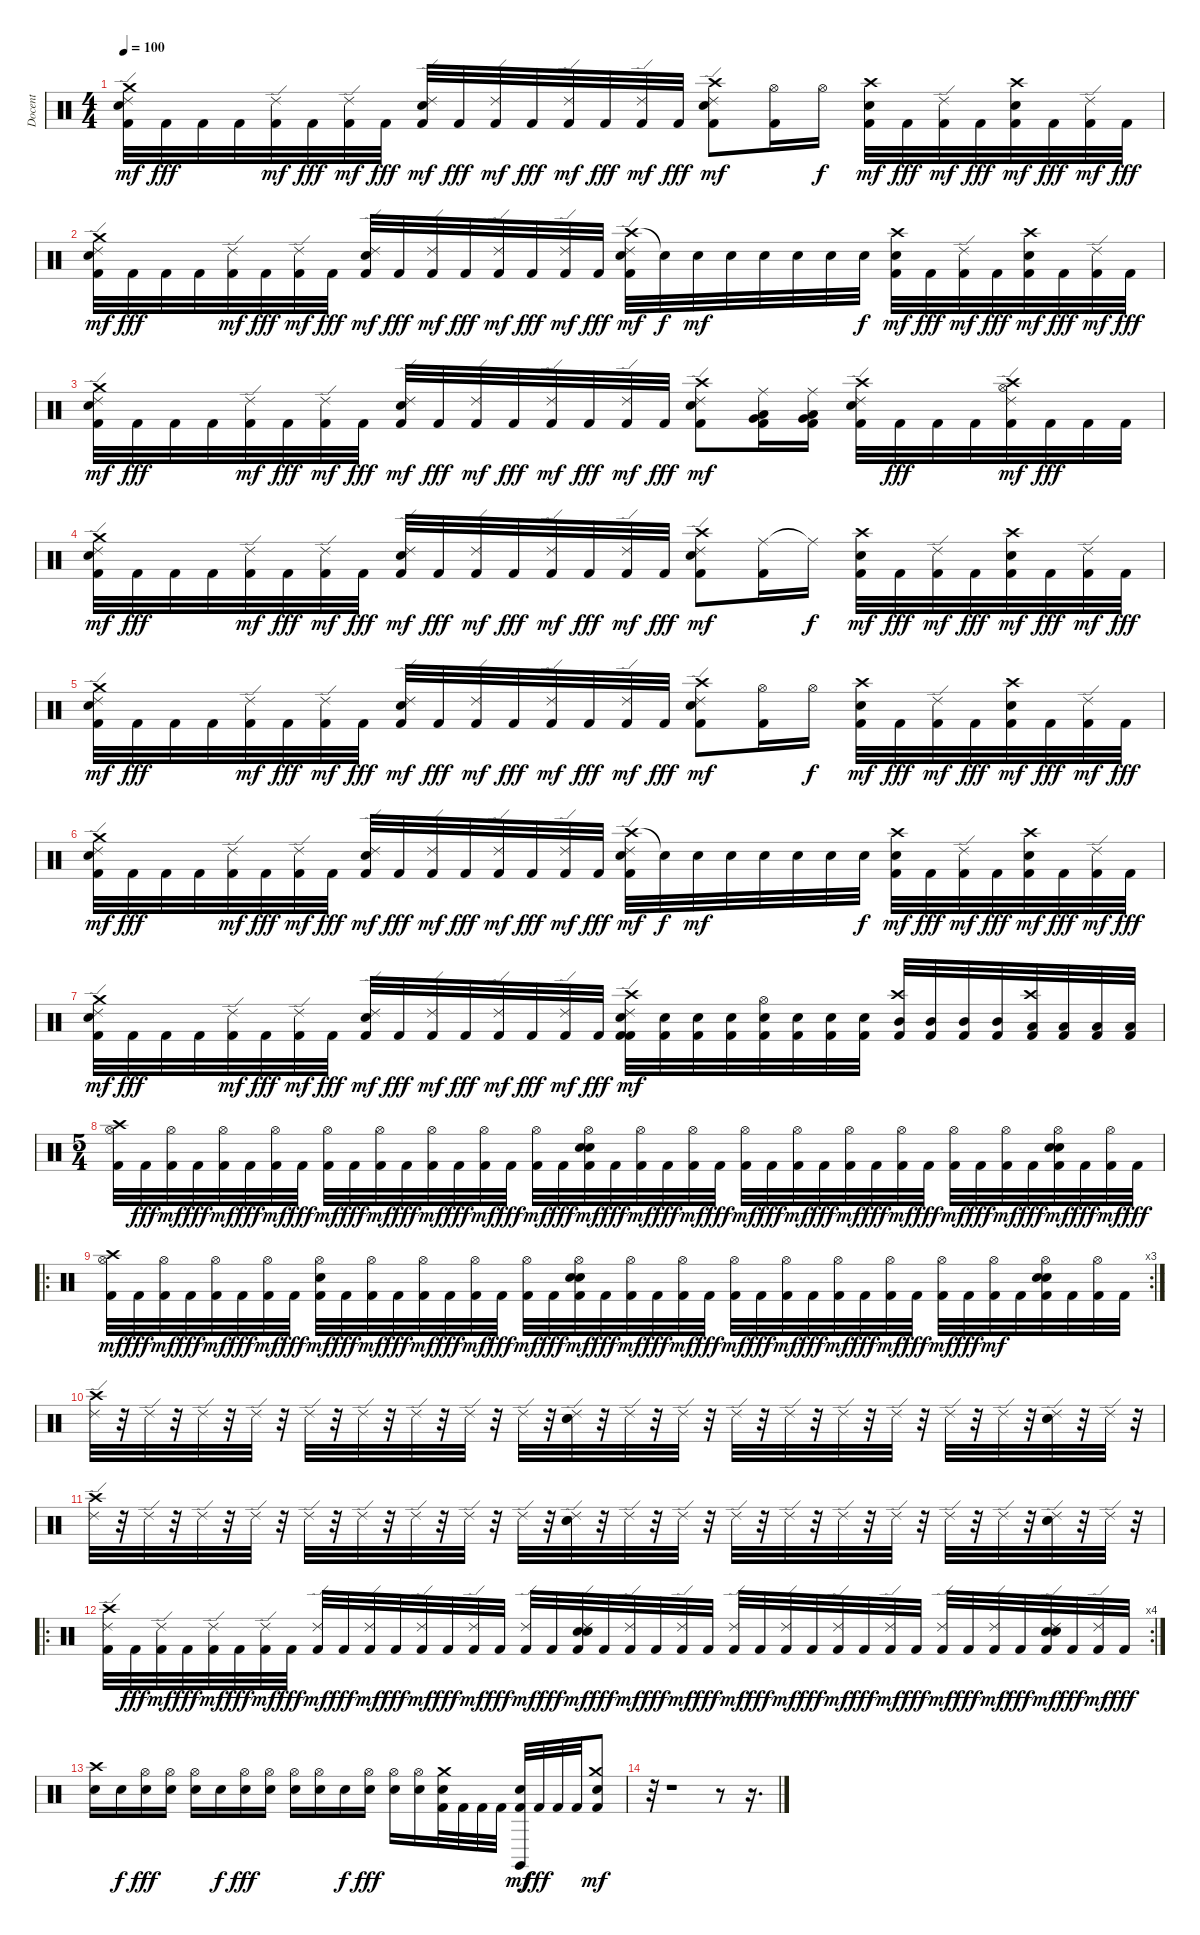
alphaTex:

\track ("Docent" "Docent") {instrument percussion}
\staff {score}
\articulation defaults
\ts (4 4)
\tempo 100
\clef neutral
\ks c
("Crash medium (hit)" "Ride (edge) 2" "Snare (hit) 2" "Kick (hit) 2").32{dy mf} "Kick (hit) 2".32{dy fff} "Kick (hit) 2".32 "Kick (hit) 2".32 ("Ride (edge) 2" "Kick (hit) 2").32{dy mf} "Kick (hit) 2".32{dy fff} ("Ride (edge) 2" "Kick (hit) 2").32{dy mf} "Kick (hit) 2".32{dy fff} ("Ride (edge) 2" "Snare (hit) 2" "Kick (hit) 2").32{dy mf} "Kick (hit) 2".32{dy fff} ("Ride (edge) 2" "Kick (hit) 2").32{dy mf} "Kick (hit) 2".32{dy fff} ("Ride (edge) 2" "Kick (hit) 2").32{dy mf} "Kick (hit) 2".32{dy fff} ("Ride (edge) 2" "Kick (hit) 2").32{dy mf} "Kick (hit) 2".32{dy fff} ("Crash high (hit)" "Ride (edge) 2" "Snare (hit) 2" "Kick (hit) 2").8{dy mf} ("Hi-Hat (open)" "Kick (hit) 2").16 "Hi-Hat (open)".16{dy f} ("Crash high (hit)" "Snare (hit) 2" "Kick (hit) 2").32{dy mf} "Kick (hit) 2".32{dy fff} ("Ride (edge) 2" "Kick (hit) 2").32{dy mf} "Kick (hit) 2".32{dy fff} ("Crash high (hit)" "Snare (hit) 2" "Kick (hit) 2").32{dy mf} "Kick (hit) 2".32{dy fff} ("Ride (edge) 2" "Kick (hit) 2").32{dy mf} "Kick (hit) 2".32{dy fff} |
("Crash medium (hit)" "Ride (edge) 2" "Snare (hit) 2" "Kick (hit) 2").32{dy mf} "Kick (hit) 2".32{dy fff} "Kick (hit) 2".32 "Kick (hit) 2".32 ("Ride (edge) 2" "Kick (hit) 2").32{dy mf} "Kick (hit) 2".32{dy fff} ("Ride (edge) 2" "Kick (hit) 2").32{dy mf} "Kick (hit) 2".32{dy fff} ("Ride (edge) 2" "Snare (hit) 2" "Kick (hit) 2").32{dy mf} "Kick (hit) 2".32{dy fff} ("Ride (edge) 2" "Kick (hit) 2").32{dy mf} "Kick (hit) 2".32{dy fff} ("Ride (edge) 2" "Kick (hit) 2").32{dy mf} "Kick (hit) 2".32{dy fff} ("Ride (edge) 2" "Kick (hit) 2").32{dy mf} "Kick (hit) 2".32{dy fff} ("Crash high (hit)" "Ride (edge) 2" "Snare (hit) 2" "Kick (hit) 2").32{dy mf} "Snare (hit) 2"{t}.32{dy f} "Snare (hit) 2".32{dy mf} "Snare (hit) 2".32 "Snare (hit) 2".32 "Snare (hit) 2".32 "Snare (hit) 2".32 "Snare (hit) 2".32{dy f} ("Crash high (hit)" "Snare (hit) 2" "Kick (hit) 2").32{dy mf} "Kick (hit) 2".32{dy fff} ("Ride (edge) 2" "Kick (hit) 2").32{dy mf} "Kick (hit) 2".32{dy fff} ("Crash high (hit)" "Snare (hit) 2" "Kick (hit) 2").32{dy mf} "Kick (hit) 2".32{dy fff} ("Ride (edge) 2" "Kick (hit) 2").32{dy mf} "Kick (hit) 2".32{dy fff} |
("Crash medium (hit)" "Ride (edge) 2" "Snare (hit) 2" "Kick (hit) 2").32{dy mf} "Kick (hit) 2".32{dy fff} "Kick (hit) 2".32 "Kick (hit) 2".32 ("Ride (edge) 2" "Kick (hit) 2").32{dy mf} "Kick (hit) 2".32{dy fff} ("Ride (edge) 2" "Kick (hit) 2").32{dy mf} "Kick (hit) 2".32{dy fff} ("Ride (edge) 2" "Snare (hit) 2" "Kick (hit) 2").32{dy mf} "Kick (hit) 2".32{dy fff} ("Ride (edge) 2" "Kick (hit) 2").32{dy mf} "Kick (hit) 2".32{dy fff} ("Ride (edge) 2" "Kick (hit) 2").32{dy mf} "Kick (hit) 2".32{dy fff} ("Ride (edge) 2" "Kick (hit) 2").32{dy mf} "Kick (hit) 2".32{dy fff} ("Crash high (hit)" "Ride (edge) 2" "Snare (hit) 2" "Kick (hit) 2").8{dy mf} ("Ride (middle)" "Low Tom (hit)" "Very Low Tom (hit)" "Kick (hit) 2").16 ("Ride (middle)" "Low Tom (hit)" "Very Low Tom (hit)" "Kick (hit) 2").16 ("Crash high (hit)" "Ride (edge) 2" "Snare (hit) 2" "Kick (hit) 2").32 "Kick (hit) 2".32{dy fff} "Kick (hit) 2".32 "Kick (hit) 2".32 ("Crash high (hit)" "Ride (edge) 2" "Hi-Hat (open)" "Kick (hit) 2").32{dy mf} "Kick (hit) 2".32{dy fff} "Kick (hit) 2".32 "Kick (hit) 2".32 |
("Crash medium (hit)" "Ride (edge) 2" "Snare (hit) 2" "Kick (hit) 2").32{dy mf} "Kick (hit) 2".32{dy fff} "Kick (hit) 2".32 "Kick (hit) 2".32 ("Ride (edge) 2" "Kick (hit) 2").32{dy mf} "Kick (hit) 2".32{dy fff} ("Ride (edge) 2" "Kick (hit) 2").32{dy mf} "Kick (hit) 2".32{dy fff} ("Ride (edge) 2" "Snare (hit) 2" "Kick (hit) 2").32{dy mf} "Kick (hit) 2".32{dy fff} ("Ride (edge) 2" "Kick (hit) 2").32{dy mf} "Kick (hit) 2".32{dy fff} ("Ride (edge) 2" "Kick (hit) 2").32{dy mf} "Kick (hit) 2".32{dy fff} ("Ride (edge) 2" "Kick (hit) 2").32{dy mf} "Kick (hit) 2".32{dy fff} ("Crash high (hit)" "Ride (edge) 2" "Snare (hit) 2" "Kick (hit) 2").8{dy mf} ("Ride (middle)" "Kick (hit) 2").16 "Ride (middle)"{t}.16{dy f} ("Crash high (hit)" "Snare (hit) 2" "Kick (hit) 2").32{dy mf} "Kick (hit) 2".32{dy fff} ("Ride (edge) 2" "Kick (hit) 2").32{dy mf} "Kick (hit) 2".32{dy fff} ("Crash high (hit)" "Snare (hit) 2" "Kick (hit) 2").32{dy mf} "Kick (hit) 2".32{dy fff} ("Ride (edge) 2" "Kick (hit) 2").32{dy mf} "Kick (hit) 2".32{dy fff} |
("Crash medium (hit)" "Ride (edge) 2" "Snare (hit) 2" "Kick (hit) 2").32{dy mf} "Kick (hit) 2".32{dy fff} "Kick (hit) 2".32 "Kick (hit) 2".32 ("Ride (edge) 2" "Kick (hit) 2").32{dy mf} "Kick (hit) 2".32{dy fff} ("Ride (edge) 2" "Kick (hit) 2").32{dy mf} "Kick (hit) 2".32{dy fff} ("Ride (edge) 2" "Snare (hit) 2" "Kick (hit) 2").32{dy mf} "Kick (hit) 2".32{dy fff} ("Ride (edge) 2" "Kick (hit) 2").32{dy mf} "Kick (hit) 2".32{dy fff} ("Ride (edge) 2" "Kick (hit) 2").32{dy mf} "Kick (hit) 2".32{dy fff} ("Ride (edge) 2" "Kick (hit) 2").32{dy mf} "Kick (hit) 2".32{dy fff} ("Crash high (hit)" "Ride (edge) 2" "Snare (hit) 2" "Kick (hit) 2").8{dy mf} ("Hi-Hat (open)" "Kick (hit) 2").16 "Hi-Hat (open)".16{dy f} ("Crash high (hit)" "Snare (hit) 2" "Kick (hit) 2").32{dy mf} "Kick (hit) 2".32{dy fff} ("Ride (edge) 2" "Kick (hit) 2").32{dy mf} "Kick (hit) 2".32{dy fff} ("Crash high (hit)" "Snare (hit) 2" "Kick (hit) 2").32{dy mf} "Kick (hit) 2".32{dy fff} ("Ride (edge) 2" "Kick (hit) 2").32{dy mf} "Kick (hit) 2".32{dy fff} |
("Crash medium (hit)" "Ride (edge) 2" "Snare (hit) 2" "Kick (hit) 2").32{dy mf} "Kick (hit) 2".32{dy fff} "Kick (hit) 2".32 "Kick (hit) 2".32 ("Ride (edge) 2" "Kick (hit) 2").32{dy mf} "Kick (hit) 2".32{dy fff} ("Ride (edge) 2" "Kick (hit) 2").32{dy mf} "Kick (hit) 2".32{dy fff} ("Ride (edge) 2" "Snare (hit) 2" "Kick (hit) 2").32{dy mf} "Kick (hit) 2".32{dy fff} ("Ride (edge) 2" "Kick (hit) 2").32{dy mf} "Kick (hit) 2".32{dy fff} ("Ride (edge) 2" "Kick (hit) 2").32{dy mf} "Kick (hit) 2".32{dy fff} ("Ride (edge) 2" "Kick (hit) 2").32{dy mf} "Kick (hit) 2".32{dy fff} ("Crash high (hit)" "Ride (edge) 2" "Snare (hit) 2" "Kick (hit) 2").32{dy mf} "Snare (hit) 2"{t}.32{dy f} "Snare (hit) 2".32{dy mf} "Snare (hit) 2".32 "Snare (hit) 2".32 "Snare (hit) 2".32 "Snare (hit) 2".32 "Snare (hit) 2".32{dy f} ("Crash high (hit)" "Snare (hit) 2" "Kick (hit) 2").32{dy mf} "Kick (hit) 2".32{dy fff} ("Ride (edge) 2" "Kick (hit) 2").32{dy mf} "Kick (hit) 2".32{dy fff} ("Crash high (hit)" "Snare (hit) 2" "Kick (hit) 2").32{dy mf} "Kick (hit) 2".32{dy fff} ("Ride (edge) 2" "Kick (hit) 2").32{dy mf} "Kick (hit) 2".32{dy fff} |
("Crash medium (hit)" "Ride (edge) 2" "Snare (hit) 2" "Kick (hit) 2").32{dy mf} "Kick (hit) 2".32{dy fff} "Kick (hit) 2".32 "Kick (hit) 2".32 ("Ride (edge) 2" "Kick (hit) 2").32{dy mf} "Kick (hit) 2".32{dy fff} ("Ride (edge) 2" "Kick (hit) 2").32{dy mf} "Kick (hit) 2".32{dy fff} ("Ride (edge) 2" "Snare (hit) 2" "Kick (hit) 2").32{dy mf} "Kick (hit) 2".32{dy fff} ("Ride (edge) 2" "Kick (hit) 2").32{dy mf} "Kick (hit) 2".32{dy fff} ("Ride (edge) 2" "Kick (hit) 2").32{dy mf} "Kick (hit) 2".32{dy fff} ("Ride (edge) 2" "Kick (hit) 2").32{dy mf} "Kick (hit) 2".32{dy fff} ("Crash high (hit)" "Ride (edge) 2" "Snare (hit) 2" "Kick (hit) 2" "Kick (hit) 2").32{dy mf} ("Snare (hit) 2" "Kick (hit) 2").32 ("Snare (hit) 2" "Kick (hit) 2").32 ("Snare (hit) 2" "Kick (hit) 2").32 ("Hi-Hat (open)" "Snare (hit) 2" "Kick (hit) 2").32 ("Snare (hit) 2" "Kick (hit) 2").32 ("Snare (hit) 2" "Kick (hit) 2").32 ("Snare (hit) 2" "Kick (hit) 2").32 ("Crash high (hit)" "Mid Tom (hit)" "Kick (hit) 2").32 ("Mid Tom (hit)" "Kick (hit) 2").32 ("Mid Tom (hit)" "Kick (hit) 2").32 ("Mid Tom (hit)" "Kick (hit) 2").32 ("Crash high (hit)" "Low Tom (hit)" "Kick (hit) 2").32 ("Low Tom (hit)" "Kick (hit) 2").32 ("Low Tom (hit)" "Kick (hit) 2").32 ("Low Tom (hit)" "Kick (hit) 2").32 |
\ts (5 4)
("Crash high (hit)" "Hi-Hat (open)" "Kick (hit) 2").32 "Kick (hit) 2".32{dy fff} ("Hi-Hat (open)" "Kick (hit) 2").32{dy mf} "Kick (hit) 2".32{dy fff} ("Hi-Hat (open)" "Kick (hit) 2").32{dy mf} "Kick (hit) 2".32{dy fff} ("Hi-Hat (open)" "Kick (hit) 2").32{dy mf} "Kick (hit) 2".32{dy fff} ("Hi-Hat (open)" "Kick (hit) 2").32{dy mf} "Kick (hit) 2".32{dy fff} ("Hi-Hat (open)" "Kick (hit) 2").32{dy mf} "Kick (hit) 2".32{dy fff} ("Hi-Hat (open)" "Kick (hit) 2").32{dy mf} "Kick (hit) 2".32{dy fff} ("Hi-Hat (open)" "Kick (hit) 2").32{dy mf} "Kick (hit) 2".32{dy fff} ("Hi-Hat (open)" "Kick (hit) 2").32{dy mf} "Kick (hit) 2".32{dy fff} ("Hi-Hat (open)" "Snare (hit) 2" "Snare (hit) 2" "Kick (hit) 2").32{dy mf} "Kick (hit) 2".32{dy fff} ("Hi-Hat (open)" "Kick (hit) 2").32{dy mf} "Kick (hit) 2".32{dy fff} ("Hi-Hat (open)" "Kick (hit) 2").32{dy mf} "Kick (hit) 2".32{dy fff} ("Hi-Hat (open)" "Kick (hit) 2").32{dy mf} "Kick (hit) 2".32{dy fff} ("Hi-Hat (open)" "Kick (hit) 2").32{dy mf} "Kick (hit) 2".32{dy fff} ("Hi-Hat (open)" "Kick (hit) 2").32{dy mf} "Kick (hit) 2".32{dy fff} ("Hi-Hat (open)" "Kick (hit) 2").32{dy mf} "Kick (hit) 2".32{dy fff} ("Hi-Hat (open)" "Kick (hit) 2").32{dy mf} "Kick (hit) 2".32{dy fff} ("Hi-Hat (open)" "Kick (hit) 2").32{dy mf} "Kick (hit) 2".32{dy fff} ("Hi-Hat (open)" "Snare (hit) 2" "Snare (hit) 2" "Kick (hit) 2").32{dy mf} "Kick (hit) 2".32{dy fff} ("Hi-Hat (open)" "Kick (hit) 2").32{dy mf} "Kick (hit) 2".32{dy fff} |
\ro
\rc 3
("Crash high (hit)" "Hi-Hat (open)" "Kick (hit) 2").32{dy mf} "Kick (hit) 2".32{dy fff} ("Hi-Hat (open)" "Kick (hit) 2").32{dy mf} "Kick (hit) 2".32{dy fff} ("Hi-Hat (open)" "Kick (hit) 2").32{dy mf} "Kick (hit) 2".32{dy fff} ("Hi-Hat (open)" "Kick (hit) 2").32{dy mf} "Kick (hit) 2".32{dy fff} ("Hi-Hat (open)" "Snare (hit) 2" "Kick (hit) 2").32{dy mf} "Kick (hit) 2".32{dy fff} ("Hi-Hat (open)" "Kick (hit) 2").32{dy mf} "Kick (hit) 2".32{dy fff} ("Hi-Hat (open)" "Kick (hit) 2").32{dy mf} "Kick (hit) 2".32{dy fff} ("Hi-Hat (open)" "Kick (hit) 2").32{dy mf} "Kick (hit) 2".32{dy fff} ("Hi-Hat (open)" "Kick (hit) 2").32{dy mf} "Kick (hit) 2".32{dy fff} ("Hi-Hat (open)" "Snare (hit) 2" "Snare (hit) 2" "Kick (hit) 2").32{dy mf} "Kick (hit) 2".32{dy fff} ("Hi-Hat (open)" "Kick (hit) 2").32{dy mf} "Kick (hit) 2".32{dy fff} ("Hi-Hat (open)" "Kick (hit) 2").32{dy mf} "Kick (hit) 2".32{dy fff} ("Hi-Hat (open)" "Kick (hit) 2").32{dy mf} "Kick (hit) 2".32{dy fff} ("Hi-Hat (open)" "Kick (hit) 2").32{dy mf} "Kick (hit) 2".32{dy fff} ("Hi-Hat (open)" "Kick (hit) 2").32{dy mf} "Kick (hit) 2".32{dy fff} ("Hi-Hat (open)" "Kick (hit) 2").32{dy mf} "Kick (hit) 2".32{dy fff} ("Hi-Hat (open)" "Kick (hit) 2").32{dy mf} "Kick (hit) 2".32{dy fff} ("Hi-Hat (open)" "Kick (hit) 2").32{dy mf} "Kick (hit) 2".32 ("Hi-Hat (open)" "Snare (hit) 2" "Snare (hit) 2" "Kick (hit) 2").32 "Kick (hit) 2".32 ("Hi-Hat (open)" "Kick (hit) 2").32 "Kick (hit) 2".32 |
("Crash high (hit)" "Ride (edge) 2").32 r.32 "Ride (edge) 2".32 r.32 "Ride (edge) 2".32 r.32 "Ride (edge) 2".32 r.32 "Ride (edge) 2".32 r.32 "Ride (edge) 2".32 r.32 "Ride (edge) 2".32 r.32 "Ride (edge) 2".32 r.32 "Ride (edge) 2".32 r.32 ("Ride (edge) 2" "Snare (hit) 2" "Snare (hit) 2").32 r.32 "Ride (edge) 2".32 r.32 "Ride (edge) 2".32 r.32 "Ride (edge) 2".32 r.32 "Ride (edge) 2".32 r.32 "Ride (edge) 2".32 r.32 "Ride (edge) 2".32 r.32 "Ride (edge) 2".32 r.32 "Ride (edge) 2".32 r.32 ("Ride (edge) 2" "Snare (hit) 2" "Snare (hit) 2").32 r.32 "Ride (edge) 2".32 r.32 |
("Crash high (hit)" "Ride (edge) 2").32 r.32 "Ride (edge) 2".32 r.32 "Ride (edge) 2".32 r.32 "Ride (edge) 2".32 r.32 "Ride (edge) 2".32 r.32 "Ride (edge) 2".32 r.32 "Ride (edge) 2".32 r.32 "Ride (edge) 2".32 r.32 "Ride (edge) 2".32 r.32 ("Ride (edge) 2" "Snare (hit) 2" "Snare (hit) 2").32 r.32 "Ride (edge) 2".32 r.32 "Ride (edge) 2".32 r.32 "Ride (edge) 2".32 r.32 "Ride (edge) 2".32 r.32 "Ride (edge) 2".32 r.32 "Ride (edge) 2".32 r.32 "Ride (edge) 2".32 r.32 "Ride (edge) 2".32 r.32 ("Ride (edge) 2" "Snare (hit) 2" "Snare (hit) 2").32 r.32 "Ride (edge) 2".32 r.32 |
\ro
\rc 4
("Crash high (hit)" "Ride (edge) 2" "Kick (hit) 2").32 "Kick (hit) 2".32{dy fff} ("Ride (edge) 2" "Kick (hit) 2").32{dy mf} "Kick (hit) 2".32{dy fff} ("Ride (edge) 2" "Kick (hit) 2").32{dy mf} "Kick (hit) 2".32{dy fff} ("Ride (edge) 2" "Kick (hit) 2").32{dy mf} "Kick (hit) 2".32{dy fff} ("Ride (edge) 2" "Kick (hit) 2").32{dy mf} "Kick (hit) 2".32{dy fff} ("Ride (edge) 2" "Kick (hit) 2").32{dy mf} "Kick (hit) 2".32{dy fff} ("Ride (edge) 2" "Kick (hit) 2").32{dy mf} "Kick (hit) 2".32{dy fff} ("Ride (edge) 2" "Kick (hit) 2").32{dy mf} "Kick (hit) 2".32{dy fff} ("Ride (edge) 2" "Kick (hit) 2").32{dy mf} "Kick (hit) 2".32{dy fff} ("Ride (edge) 2" "Snare (hit) 2" "Snare (hit) 2" "Kick (hit) 2").32{dy mf} "Kick (hit) 2".32{dy fff} ("Ride (edge) 2" "Kick (hit) 2").32{dy mf} "Kick (hit) 2".32{dy fff} ("Ride (edge) 2" "Kick (hit) 2").32{dy mf} "Kick (hit) 2".32{dy fff} ("Ride (edge) 2" "Kick (hit) 2").32{dy mf} "Kick (hit) 2".32{dy fff} ("Ride (edge) 2" "Kick (hit) 2").32{dy mf} "Kick (hit) 2".32{dy fff} ("Ride (edge) 2" "Kick (hit) 2").32{dy mf} "Kick (hit) 2".32{dy fff} ("Ride (edge) 2" "Kick (hit) 2").32{dy mf} "Kick (hit) 2".32{dy fff} ("Ride (edge) 2" "Kick (hit) 2").32{dy mf} "Kick (hit) 2".32{dy fff} ("Ride (edge) 2" "Kick (hit) 2").32{dy mf} "Kick (hit) 2".32{dy fff} ("Ride (edge) 2" "Snare (hit) 2" "Snare (hit) 2" "Kick (hit) 2").32{dy mf} "Kick (hit) 2".32{dy fff} ("Ride (edge) 2" "Kick (hit) 2").32{dy mf} "Kick (hit) 2".32{dy fff} |
("Crash high (hit)" "Snare (hit) 2").16 "Snare (hit)".16{dy f} ("Hi-Hat (open)" "Snare (hit) 2").16{dy fff} ("Hi-Hat (open)" "Snare (hit) 2").16 ("Hi-Hat (open)" "Snare (hit) 2").16 "Snare (hit) 2".16{dy f} ("Hi-Hat (open)" "Snare (hit) 2").16{dy fff} ("Hi-Hat (open)" "Snare (hit) 2").16 ("Hi-Hat (open)" "Snare (hit) 2").16 ("Hi-Hat (open)" "Snare (hit) 2").16 "Snare (hit) 2".16{dy f} ("Hi-Hat (open)" "Snare (hit) 2").16{dy fff} ("Hi-Hat (open)" "Snare (hit) 2").16 ("Hi-Hat (open)" "Snare (hit) 2").16 ("Crash medium (hit)" "Snare (hit) 2" "Kick (hit) 2").32 "Kick (hit) 2".32 "Kick (hit) 2".32 "Kick (hit) 2".32 ("Claves (hit)" "Snare (hit) 2" "Kick (hit) 2").32{dy mf} "Kick (hit) 2".32{dy fff} "Kick (hit) 2".32 "Kick (hit) 2".32 ("Crash medium (hit)" "Snare (hit) 2" "Kick (hit) 2").8{dy mf} |
r.32 r.1 r.8 r.16{d}
